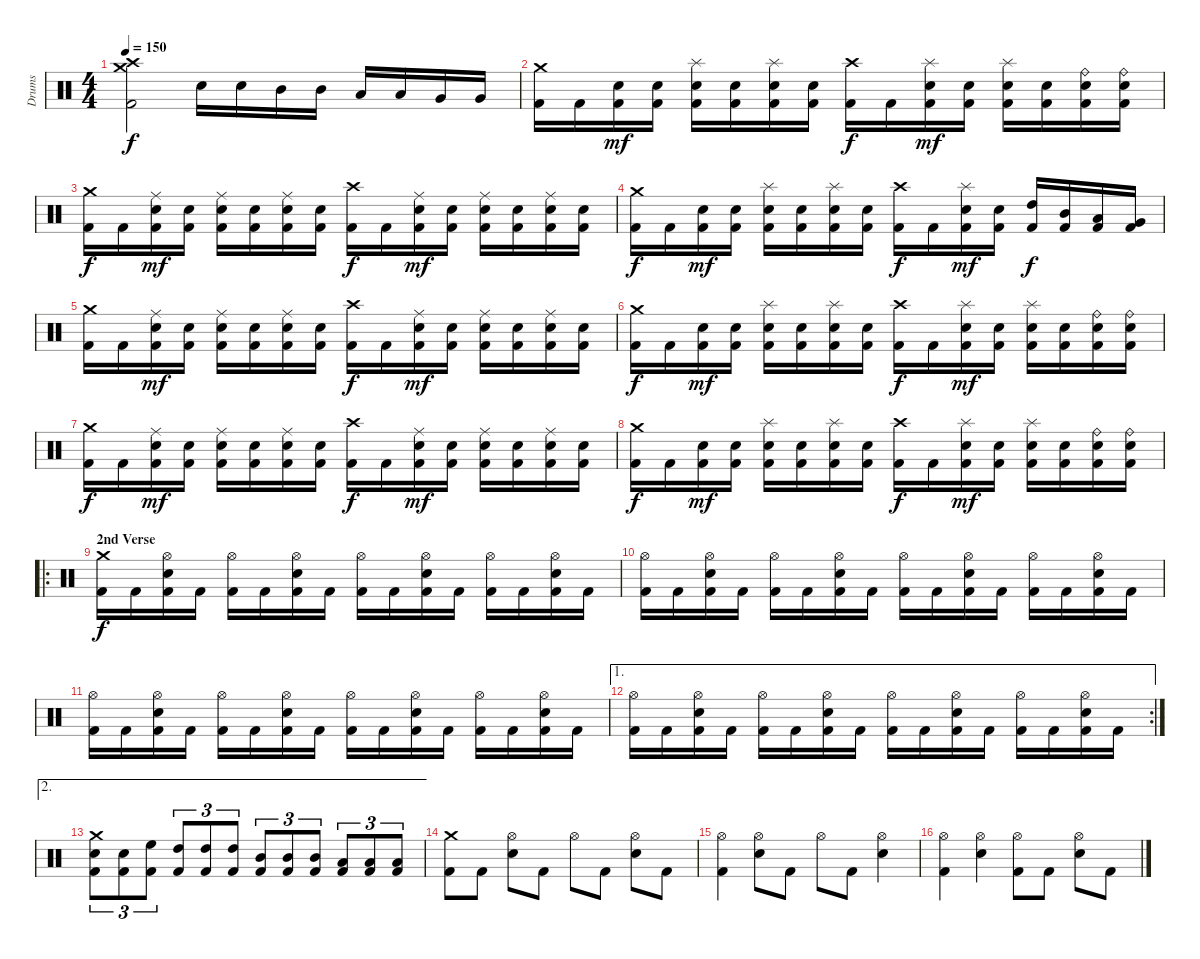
\track ("Drums" "Drums") {instrument percussion}
\staff {score}
\articulation defaults
\ts (4 4)
\tempo 150
\clef neutral
\ks c
("Kick (hit) 2" "Crash medium (hit)" "Crash high (hit)").2{dy f} "Electric Snare (hit)".16 "Electric Snare (hit)".16 "Mid Tom (hit)".16 "Mid Tom (hit)".16 "Low Tom (hit)".16 "Low Tom (hit)".16 "Very Low Tom (hit)".16 "Very Low Tom (hit)".16 |
("Kick (hit) 2" "Crash medium (hit)").16 "Kick (hit) 2".16 ("Kick (hit) 2" "Electric Snare (hit)").16{dy mf} ("Kick (hit) 2" "Electric Snare (hit)").16 ("Kick (hit) 2" "Electric Snare (hit)" "Splash (hit)").16 ("Kick (hit) 2" "Electric Snare (hit)").16 ("Kick (hit) 2" "Electric Snare (hit)" "Splash (hit)").16 ("Kick (hit) 2" "Electric Snare (hit)").16 ("Kick (hit) 2" "Crash high (hit)").16{dy f} "Kick (hit) 2".16 ("Kick (hit) 2" "Electric Snare (hit)" "Splash (hit)").16{dy mf} ("Kick (hit) 2" "Electric Snare (hit)").16 ("Kick (hit) 2" "Electric Snare (hit)" "Splash (hit)").16 ("Kick (hit) 2" "Electric Snare (hit)").16 ("Kick (hit) 2" "Electric Snare (hit)" "Ride (bell)").16 ("Kick (hit) 2" "Electric Snare (hit)" "Ride (bell)").16 |
("Kick (hit) 2" "Crash medium (hit)").16{dy f} "Kick (hit) 2".16 ("Kick (hit) 2" "Electric Snare (hit)" "Ride (middle)").16{dy mf} ("Kick (hit) 2" "Electric Snare (hit)").16 ("Kick (hit) 2" "Electric Snare (hit)" "Ride (middle)").16 ("Kick (hit) 2" "Electric Snare (hit)").16 ("Kick (hit) 2" "Electric Snare (hit)" "Ride (middle)").16 ("Kick (hit) 2" "Electric Snare (hit)").16 ("Kick (hit) 2" "Crash high (hit)").16{dy f} "Kick (hit) 2".16 ("Kick (hit) 2" "Electric Snare (hit)" "Ride (middle)").16{dy mf} ("Kick (hit) 2" "Electric Snare (hit)").16 ("Kick (hit) 2" "Electric Snare (hit)" "Ride (middle)").16 ("Kick (hit) 2" "Electric Snare (hit)").16 ("Kick (hit) 2" "Electric Snare (hit)" "Ride (middle)").16 ("Kick (hit) 2" "Electric Snare (hit)").16 |
("Kick (hit) 2" "Crash medium (hit)").16{dy f} "Kick (hit) 2".16 ("Kick (hit) 2" "Electric Snare (hit)").16{dy mf} ("Kick (hit) 2" "Electric Snare (hit)").16 ("Kick (hit) 2" "Electric Snare (hit)" "Splash (hit)").16 ("Kick (hit) 2" "Electric Snare (hit)").16 ("Kick (hit) 2" "Electric Snare (hit)" "Splash (hit)").16 ("Kick (hit) 2" "Electric Snare (hit)").16 ("Kick (hit) 2" "Crash high (hit)").16{dy f} "Kick (hit) 2".16 ("Kick (hit) 2" "Electric Snare (hit)" "Splash (hit)").16{dy mf} ("Kick (hit) 2" "Electric Snare (hit)").16 ("Kick (hit) 2" "High Tom (hit)").16{dy f} ("Kick (hit) 2" "Mid Tom (hit)").16 ("Kick (hit) 2" "Low Tom (hit)").16 ("Kick (hit) 2" "Very Low Tom (hit)").16 |
("Kick (hit) 2" "Crash medium (hit)").16 "Kick (hit) 2".16 ("Kick (hit) 2" "Electric Snare (hit)" "Ride (middle)").16{dy mf} ("Kick (hit) 2" "Electric Snare (hit)").16 ("Kick (hit) 2" "Electric Snare (hit)" "Ride (middle)").16 ("Kick (hit) 2" "Electric Snare (hit)").16 ("Kick (hit) 2" "Electric Snare (hit)" "Ride (middle)").16 ("Kick (hit) 2" "Electric Snare (hit)").16 ("Kick (hit) 2" "Crash high (hit)").16{dy f} "Kick (hit) 2".16 ("Kick (hit) 2" "Electric Snare (hit)" "Ride (middle)").16{dy mf} ("Kick (hit) 2" "Electric Snare (hit)").16 ("Kick (hit) 2" "Electric Snare (hit)" "Ride (middle)").16 ("Kick (hit) 2" "Electric Snare (hit)").16 ("Kick (hit) 2" "Electric Snare (hit)" "Ride (middle)").16 ("Kick (hit) 2" "Electric Snare (hit)").16 |
("Kick (hit) 2" "Crash medium (hit)").16{dy f} "Kick (hit) 2".16 ("Kick (hit) 2" "Electric Snare (hit)").16{dy mf} ("Kick (hit) 2" "Electric Snare (hit)").16 ("Kick (hit) 2" "Electric Snare (hit)" "Splash (hit)").16 ("Kick (hit) 2" "Electric Snare (hit)").16 ("Kick (hit) 2" "Electric Snare (hit)" "Splash (hit)").16 ("Kick (hit) 2" "Electric Snare (hit)").16 ("Kick (hit) 2" "Crash high (hit)").16{dy f} "Kick (hit) 2".16 ("Kick (hit) 2" "Electric Snare (hit)" "Splash (hit)").16{dy mf} ("Kick (hit) 2" "Electric Snare (hit)").16 ("Kick (hit) 2" "Electric Snare (hit)" "Splash (hit)").16 ("Kick (hit) 2" "Electric Snare (hit)").16 ("Kick (hit) 2" "Electric Snare (hit)" "Ride (bell)").16 ("Kick (hit) 2" "Electric Snare (hit)" "Ride (bell)").16 |
("Kick (hit) 2" "Crash medium (hit)").16{dy f} "Kick (hit) 2".16 ("Kick (hit) 2" "Electric Snare (hit)" "Ride (middle)").16{dy mf} ("Kick (hit) 2" "Electric Snare (hit)").16 ("Kick (hit) 2" "Electric Snare (hit)" "Ride (middle)").16 ("Kick (hit) 2" "Electric Snare (hit)").16 ("Kick (hit) 2" "Electric Snare (hit)" "Ride (middle)").16 ("Kick (hit) 2" "Electric Snare (hit)").16 ("Kick (hit) 2" "Crash high (hit)").16{dy f} "Kick (hit) 2".16 ("Kick (hit) 2" "Electric Snare (hit)" "Ride (middle)").16{dy mf} ("Kick (hit) 2" "Electric Snare (hit)").16 ("Kick (hit) 2" "Electric Snare (hit)" "Ride (middle)").16 ("Kick (hit) 2" "Electric Snare (hit)").16 ("Kick (hit) 2" "Electric Snare (hit)" "Ride (middle)").16 ("Kick (hit) 2" "Electric Snare (hit)").16 |
("Kick (hit) 2" "Crash medium (hit)").16{dy f} "Kick (hit) 2".16 ("Kick (hit) 2" "Electric Snare (hit)").16{dy mf} ("Kick (hit) 2" "Electric Snare (hit)").16 ("Kick (hit) 2" "Electric Snare (hit)" "Splash (hit)").16 ("Kick (hit) 2" "Electric Snare (hit)").16 ("Kick (hit) 2" "Electric Snare (hit)" "Splash (hit)").16 ("Kick (hit) 2" "Electric Snare (hit)").16 ("Kick (hit) 2" "Crash high (hit)").16{dy f} "Kick (hit) 2".16 ("Kick (hit) 2" "Electric Snare (hit)" "Splash (hit)").16{dy mf} ("Kick (hit) 2" "Electric Snare (hit)").16 ("Kick (hit) 2" "Electric Snare (hit)" "Splash (hit)").16 ("Kick (hit) 2" "Electric Snare (hit)").16 ("Kick (hit) 2" "Electric Snare (hit)" "Ride (bell)").16 ("Kick (hit) 2" "Electric Snare (hit)" "Ride (bell)").16 |
\ro
\section ("" "2nd Verse")
("Kick (hit) 2" "Crash medium (hit)").16{dy f} "Kick (hit) 2".16 ("Kick (hit) 2" "Electric Snare (hit)" "Hi-Hat (open)").16 "Kick (hit) 2".16 ("Kick (hit) 2" "Hi-Hat (open)").16 "Kick (hit) 2".16 ("Kick (hit) 2" "Electric Snare (hit)" "Hi-Hat (open)").16 "Kick (hit) 2".16 ("Kick (hit) 2" "Hi-Hat (open)").16 "Kick (hit) 2".16 ("Kick (hit) 2" "Electric Snare (hit)" "Hi-Hat (open)").16 "Kick (hit) 2".16 ("Kick (hit) 2" "Hi-Hat (open)").16 "Kick (hit) 2".16 ("Kick (hit) 2" "Electric Snare (hit)" "Hi-Hat (open)").16 "Kick (hit) 2".16 |
("Kick (hit) 2" "Hi-Hat (open)").16 "Kick (hit) 2".16 ("Kick (hit) 2" "Electric Snare (hit)" "Hi-Hat (open)").16 "Kick (hit) 2".16 ("Kick (hit) 2" "Hi-Hat (open)").16 "Kick (hit) 2".16 ("Kick (hit) 2" "Electric Snare (hit)" "Hi-Hat (open)").16 "Kick (hit) 2".16 ("Kick (hit) 2" "Hi-Hat (open)").16 "Kick (hit) 2".16 ("Kick (hit) 2" "Electric Snare (hit)" "Hi-Hat (open)").16 "Kick (hit) 2".16 ("Kick (hit) 2" "Hi-Hat (open)").16 "Kick (hit) 2".16 ("Kick (hit) 2" "Electric Snare (hit)" "Hi-Hat (open)").16 "Kick (hit) 2".16 |
("Kick (hit) 2" "Hi-Hat (open)").16 "Kick (hit) 2".16 ("Kick (hit) 2" "Electric Snare (hit)" "Hi-Hat (open)").16 "Kick (hit) 2".16 ("Kick (hit) 2" "Hi-Hat (open)").16 "Kick (hit) 2".16 ("Kick (hit) 2" "Electric Snare (hit)" "Hi-Hat (open)").16 "Kick (hit) 2".16 ("Kick (hit) 2" "Hi-Hat (open)").16 "Kick (hit) 2".16 ("Kick (hit) 2" "Electric Snare (hit)" "Hi-Hat (open)").16 "Kick (hit) 2".16 ("Kick (hit) 2" "Hi-Hat (open)").16 "Kick (hit) 2".16 ("Kick (hit) 2" "Electric Snare (hit)" "Hi-Hat (open)").16 "Kick (hit) 2".16 |
\ae 1
\rc 2
("Kick (hit) 2" "Hi-Hat (open)").16 "Kick (hit) 2".16 ("Kick (hit) 2" "Electric Snare (hit)" "Hi-Hat (open)").16 "Kick (hit) 2".16 ("Kick (hit) 2" "Hi-Hat (open)").16 "Kick (hit) 2".16 ("Kick (hit) 2" "Electric Snare (hit)" "Hi-Hat (open)").16 "Kick (hit) 2".16 ("Kick (hit) 2" "Hi-Hat (open)").16 "Kick (hit) 2".16 ("Kick (hit) 2" "Electric Snare (hit)" "Hi-Hat (open)").16 "Kick (hit) 2".16 ("Kick (hit) 2" "Hi-Hat (open)").16 "Kick (hit) 2".16 ("Kick (hit) 2" "Electric Snare (hit)" "Hi-Hat (open)").16 "Kick (hit) 2".16 |
\ae 2
("Kick (hit) 2" "Electric Snare (hit)" "Crash medium (hit)").8{tu (3 2)} ("Kick (hit) 2" "Electric Snare (hit)").8{tu (3 2)} ("Kick (hit) 2" "High Floor Tom (hit)").8{tu (3 2)} ("Kick (hit) 2" "High Tom (hit)").8{tu (3 2)} ("Kick (hit) 2" "High Tom (hit)").8{tu (3 2)} ("Kick (hit) 2" "High Tom (hit)").8{tu (3 2)} ("Kick (hit) 2" "Mid Tom (hit)").8{tu (3 2)} ("Kick (hit) 2" "Mid Tom (hit)").8{tu (3 2)} ("Kick (hit) 2" "Mid Tom (hit)").8{tu (3 2)} ("Kick (hit) 2" "Low Tom (hit)").8{tu (3 2)} ("Kick (hit) 2" "Low Tom (hit)").8{tu (3 2)} ("Kick (hit) 2" "Low Tom (hit)").8{tu (3 2)} |
("Kick (hit) 2" "Crash medium (hit)").8 "Kick (hit) 2".8 ("Electric Snare (hit)" "Hi-Hat (open)").8 "Kick (hit) 2".8 "Hi-Hat (open)".8 "Kick (hit) 2".8 ("Electric Snare (hit)" "Hi-Hat (open)").8 "Kick (hit) 2".8 |
("Kick (hit) 2" "Hi-Hat (open)").4 ("Electric Snare (hit)" "Hi-Hat (open)").8 "Kick (hit) 2".8 "Hi-Hat (open)".8 "Kick (hit) 2".8 ("Electric Snare (hit)" "Hi-Hat (open)").4 |
("Kick (hit) 2" "Hi-Hat (open)").4 ("Electric Snare (hit)" "Hi-Hat (open)").4 ("Kick (hit) 2" "Hi-Hat (open)").8 "Kick (hit) 2".8 ("Electric Snare (hit)" "Hi-Hat (open)").8 "Kick (hit) 2".8
